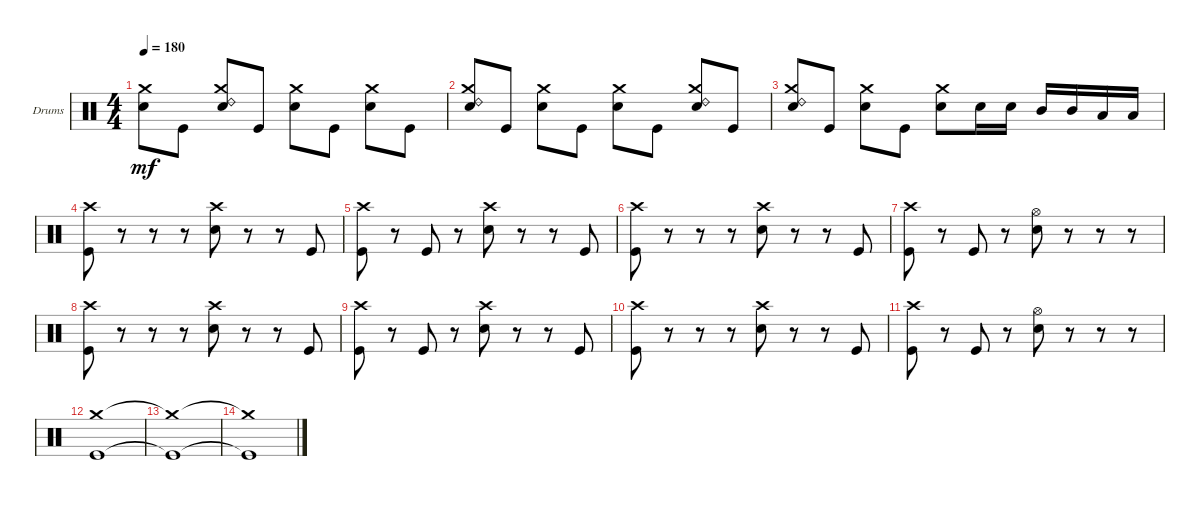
\bracketExtendMode groupsimilarinstruments
\firstSystemTrackNameOrientation horizontal
\otherSystemsTrackNameOrientation horizontal
\track ("Drumkit" "Drums") {instrument percussion}
\staff {score}
\articulation defaults
\ts (4 4)
\tempo 180
\clef neutral
\ks c
("Snare (hit) 2" "Crash medium (hit)").8{dy mf} "Kick (hit)".8 ("Snare (hit) 2" "Crash medium (hit)" "Ride (bell) 2").8 "Kick (hit)".8 ("Snare (hit) 2" "Crash medium (hit)").8 "Kick (hit)".8 ("Snare (hit) 2" "Crash medium (hit)").8 "Kick (hit)".8 |
("Snare (hit) 2" "Crash medium (hit)" "Ride (bell) 2").8 "Kick (hit)".8 ("Snare (hit) 2" "Crash medium (hit)").8 "Kick (hit)".8 ("Snare (hit) 2" "Crash medium (hit)").8 "Kick (hit)".8 ("Snare (hit) 2" "Crash medium (hit)" "Ride (bell) 2").8 "Kick (hit)".8 |
("Snare (hit) 2" "Crash medium (hit)" "Ride (bell) 2").8 "Kick (hit)".8 ("Snare (hit) 2" "Crash medium (hit)").8 "Kick (hit)".8 ("Snare (hit) 2" "Crash medium (hit)").8 "Snare (hit) 2".16 "Snare (hit) 2".16 "Mid Tom (hit)".16 "Mid Tom (hit)".16 "Low Tom (hit)".16 "Low Tom (hit)".16 |
("Kick (hit)" "Crash high (hit)").8 r.8 r.8 r.8 ("Snare (hit) 2" "Crash high (hit)").8 r.8 r.8 "Kick (hit)".8 |
("Kick (hit)" "Crash high (hit)").8 r.8 "Kick (hit)".8 r.8 ("Snare (hit) 2" "Crash high (hit)").8 r.8 r.8 "Kick (hit)".8 |
("Kick (hit)" "Crash high (hit)").8 r.8 r.8 r.8 ("Snare (hit) 2" "Crash high (hit)").8 r.8 r.8 "Kick (hit)".8 |
("Kick (hit)" "Crash high (hit)").8 r.8 "Kick (hit)".8 r.8 ("Snare (hit) 2" "Hi-Hat (open)").8 r.8 r.8 r.8 |
("Kick (hit)" "Crash high (hit)").8 r.8 r.8 r.8 ("Snare (hit) 2" "Crash high (hit)").8 r.8 r.8 "Kick (hit)".8 |
("Kick (hit)" "Crash high (hit)").8 r.8 "Kick (hit)".8 r.8 ("Snare (hit) 2" "Crash high (hit)").8 r.8 r.8 "Kick (hit)".8 |
("Kick (hit)" "Crash high (hit)").8 r.8 r.8 r.8 ("Snare (hit) 2" "Crash high (hit)").8 r.8 r.8 "Kick (hit)".8 |
("Kick (hit)" "Crash high (hit)").8 r.8 "Kick (hit)".8 r.8 ("Snare (hit) 2" "Hi-Hat (open)").8 r.8 r.8 r.8 |
("Crash medium (hit)" "Kick (hit)").1 |
("Crash medium (hit)"{t} "Kick (hit)"{t}).1 |
("Crash medium (hit)"{t} "Kick (hit)"{t}).1
